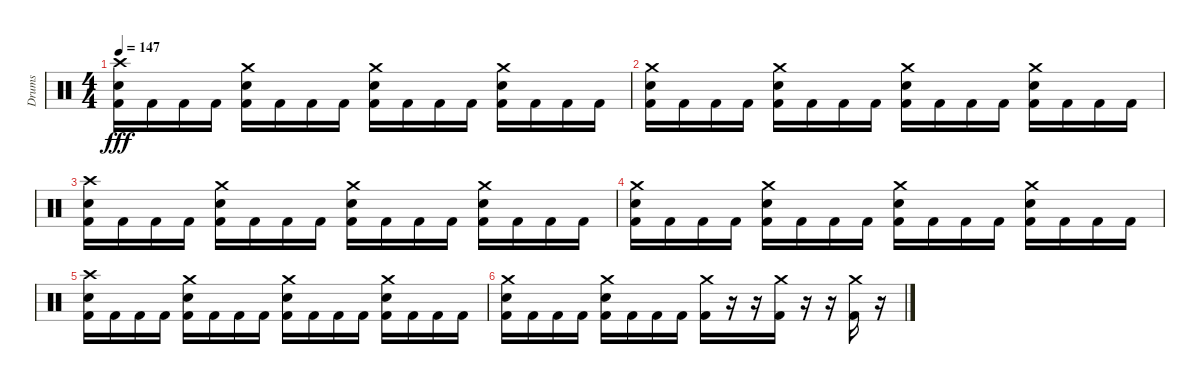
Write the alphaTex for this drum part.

\track ("Drums" "Drums") {instrument percussion}
\staff {score}
\articulation defaults
\ts (4 4)
\tempo 147
\clef neutral
\ks c
("Crash high (hit)" "Electric Snare (hit)" "Kick (hit) 2").16{dy fff} "Kick (hit) 2".16 "Kick (hit) 2".16 "Kick (hit) 2".16 ("Crash medium (hit)" "Electric Snare (hit)" "Kick (hit) 2").16 "Kick (hit) 2".16 "Kick (hit) 2".16 "Kick (hit) 2".16 ("Crash medium (hit)" "Electric Snare (hit)" "Kick (hit) 2").16 "Kick (hit) 2".16 "Kick (hit) 2".16 "Kick (hit) 2".16 ("Crash medium (hit)" "Electric Snare (hit)" "Kick (hit) 2").16 "Kick (hit) 2".16 "Kick (hit) 2".16 "Kick (hit) 2".16 |
("Crash medium (hit)" "Electric Snare (hit)" "Kick (hit) 2").16 "Kick (hit) 2".16 "Kick (hit) 2".16 "Kick (hit) 2".16 ("Crash medium (hit)" "Electric Snare (hit)" "Kick (hit) 2").16 "Kick (hit) 2".16 "Kick (hit) 2".16 "Kick (hit) 2".16 ("Crash medium (hit)" "Electric Snare (hit)" "Kick (hit) 2").16 "Kick (hit) 2".16 "Kick (hit) 2".16 "Kick (hit) 2".16 ("Crash medium (hit)" "Electric Snare (hit)" "Kick (hit) 2").16 "Kick (hit) 2".16 "Kick (hit) 2".16 "Kick (hit) 2".16 |
("Crash high (hit)" "Electric Snare (hit)" "Kick (hit) 2").16 "Kick (hit) 2".16 "Kick (hit) 2".16 "Kick (hit) 2".16 ("Crash medium (hit)" "Electric Snare (hit)" "Kick (hit) 2").16 "Kick (hit) 2".16 "Kick (hit) 2".16 "Kick (hit) 2".16 ("Crash medium (hit)" "Electric Snare (hit)" "Kick (hit) 2").16 "Kick (hit) 2".16 "Kick (hit) 2".16 "Kick (hit) 2".16 ("Crash medium (hit)" "Electric Snare (hit)" "Kick (hit) 2").16 "Kick (hit) 2".16 "Kick (hit) 2".16 "Kick (hit) 2".16 |
("Crash medium (hit)" "Electric Snare (hit)" "Kick (hit) 2").16 "Kick (hit) 2".16 "Kick (hit) 2".16 "Kick (hit) 2".16 ("Crash medium (hit)" "Electric Snare (hit)" "Kick (hit) 2").16 "Kick (hit) 2".16 "Kick (hit) 2".16 "Kick (hit) 2".16 ("Crash medium (hit)" "Electric Snare (hit)" "Kick (hit) 2").16 "Kick (hit) 2".16 "Kick (hit) 2".16 "Kick (hit) 2".16 ("Crash medium (hit)" "Electric Snare (hit)" "Kick (hit) 2").16 "Kick (hit) 2".16 "Kick (hit) 2".16 "Kick (hit) 2".16 |
("Crash high (hit)" "Electric Snare (hit)" "Kick (hit) 2").16 "Kick (hit) 2".16 "Kick (hit) 2".16 "Kick (hit) 2".16 ("Crash medium (hit)" "Electric Snare (hit)" "Kick (hit) 2").16 "Kick (hit) 2".16 "Kick (hit) 2".16 "Kick (hit) 2".16 ("Crash medium (hit)" "Electric Snare (hit)" "Kick (hit) 2").16 "Kick (hit) 2".16 "Kick (hit) 2".16 "Kick (hit) 2".16 ("Crash medium (hit)" "Electric Snare (hit)" "Kick (hit) 2").16 "Kick (hit) 2".16 "Kick (hit) 2".16 "Kick (hit) 2".16 |
("Crash medium (hit)" "Electric Snare (hit)" "Kick (hit) 2").16 "Kick (hit) 2".16 "Kick (hit) 2".16 "Kick (hit) 2".16 ("Crash medium (hit)" "Electric Snare (hit)" "Kick (hit) 2").16 "Kick (hit) 2".16 "Kick (hit) 2".16 "Kick (hit) 2".16 ("Crash medium (hit)" "Kick (hit) 2").16 r.16 r.16 ("Crash medium (hit)" "Kick (hit) 2").16 r.16 r.16 ("Crash medium (hit)" "Kick (hit) 2").16 r.16
